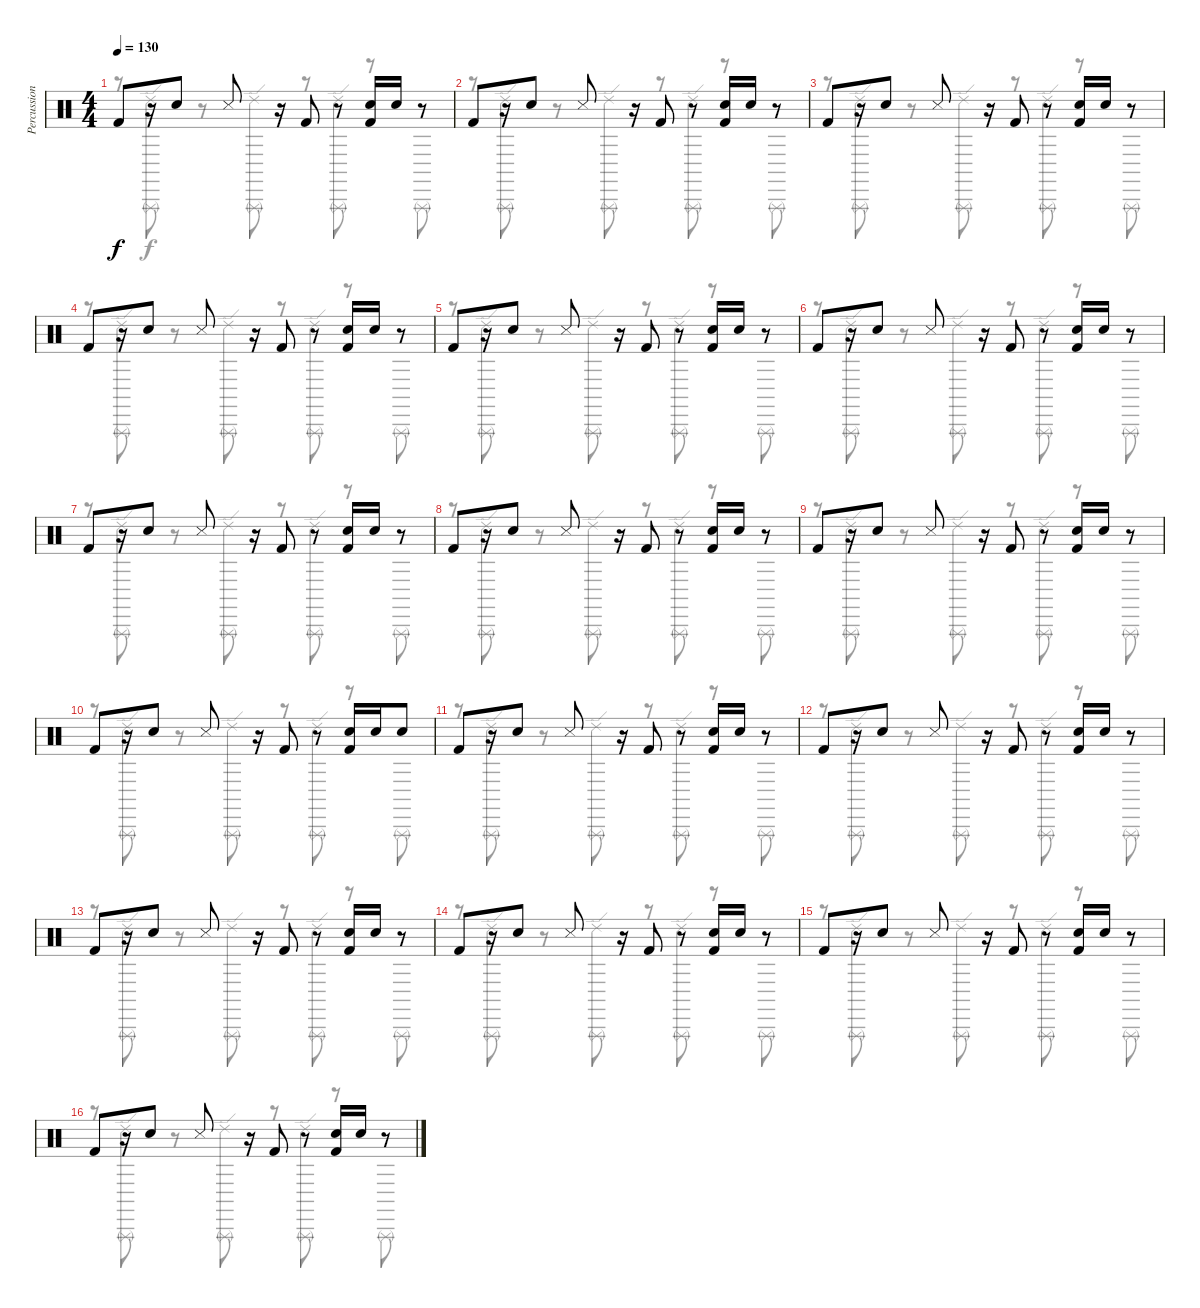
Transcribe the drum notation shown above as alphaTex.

\track ("Percussion" "Percussion") {instrument percussion}
\staff {score}
\articulation defaults
\voice
\ts (4 4)
\tempo 130
\clef neutral
\ks c "Kick (hit) 2".8{dy f}
r.16 "Electric Snare (hit)".8 "Snare (side stick) 3".8 r.16 "Kick (hit) 2".8 r.8 ("Electric Snare (hit)" "Kick (hit) 2").16 "Electric Snare (hit)".16 r.8 |
"Kick (hit) 2".8 r.16 "Electric Snare (hit)".8 "Snare (side stick) 3".8 r.16 "Kick (hit) 2".8 r.8 ("Electric Snare (hit)" "Kick (hit) 2").16 "Electric Snare (hit)".16 r.8 |
"Kick (hit) 2".8 r.16 "Electric Snare (hit)".8 "Snare (side stick) 3".8 r.16 "Kick (hit) 2".8 r.8 ("Electric Snare (hit)" "Kick (hit) 2").16 "Electric Snare (hit)".16 r.8 |
"Kick (hit) 2".8 r.16 "Electric Snare (hit)".8 "Snare (side stick) 3".8 r.16 "Kick (hit) 2".8 r.8 ("Electric Snare (hit)" "Kick (hit) 2").16 "Electric Snare (hit)".16 r.8 |
"Kick (hit) 2".8 r.16 "Electric Snare (hit)".8 "Snare (side stick) 3".8 r.16 "Kick (hit) 2".8 r.8 ("Electric Snare (hit)" "Kick (hit) 2").16 "Electric Snare (hit)".16 r.8 |
"Kick (hit) 2".8 r.16 "Electric Snare (hit)".8 "Snare (side stick) 3".8 r.16 "Kick (hit) 2".8 r.8 ("Electric Snare (hit)" "Kick (hit) 2").16 "Electric Snare (hit)".16 r.8 |
"Kick (hit) 2".8 r.16 "Electric Snare (hit)".8 "Snare (side stick) 3".8 r.16 "Kick (hit) 2".8 r.8 ("Electric Snare (hit)" "Kick (hit) 2").16 "Electric Snare (hit)".16 r.8 |
"Kick (hit) 2".8 r.16 "Electric Snare (hit)".8 "Snare (side stick) 3".8 r.16 "Kick (hit) 2".8 r.8 ("Electric Snare (hit)" "Kick (hit) 2").16 "Electric Snare (hit)".16 r.8 |
"Kick (hit) 2".8 r.16 "Electric Snare (hit)".8 "Snare (side stick) 3".8 r.16 "Kick (hit) 2".8 r.8 ("Electric Snare (hit)" "Kick (hit) 2").16 "Electric Snare (hit)".16 r.8 |
"Kick (hit) 2".8 r.16 "Electric Snare (hit)".8 "Snare (side stick) 3".8 r.16 "Kick (hit) 2".8 r.8 ("Electric Snare (hit)" "Kick (hit) 2").16 "Electric Snare (hit)".16 "Electric Snare (hit)".8 |
"Kick (hit) 2".8 r.16 "Electric Snare (hit)".8 "Snare (side stick) 3".8 r.16 "Kick (hit) 2".8 r.8 ("Electric Snare (hit)" "Kick (hit) 2").16 "Electric Snare (hit)".16 r.8 |
"Kick (hit) 2".8 r.16 "Electric Snare (hit)".8 "Snare (side stick) 3".8 r.16 "Kick (hit) 2".8 r.8 ("Electric Snare (hit)" "Kick (hit) 2").16 "Electric Snare (hit)".16 r.8 |
"Kick (hit) 2".8 r.16 "Electric Snare (hit)".8 "Snare (side stick) 3".8 r.16 "Kick (hit) 2".8 r.8 ("Electric Snare (hit)" "Kick (hit) 2").16 "Electric Snare (hit)".16 r.8 |
"Kick (hit) 2".8 r.16 "Electric Snare (hit)".8 "Snare (side stick) 3".8 r.16 "Kick (hit) 2".8 r.8 ("Electric Snare (hit)" "Kick (hit) 2").16 "Electric Snare (hit)".16 r.8 |
"Kick (hit) 2".8 r.16 "Electric Snare (hit)".8 "Snare (side stick) 3".8 r.16 "Kick (hit) 2".8 r.8 ("Electric Snare (hit)" "Kick (hit) 2").16 "Electric Snare (hit)".16 r.8 |
"Kick (hit) 2".8 r.16 "Electric Snare (hit)".8 "Snare (side stick) 3".8 r.16 "Kick (hit) 2".8 r.8 ("Electric Snare (hit)" "Kick (hit) 2").16 "Electric Snare (hit)".16 r.8
\voice
\clef neutral
\ottava regular
\simile none
\ks c
r.8{dy f} ("Triangle (rnute)" "Ride (edge) 2").8 r.8 ("Triangle (rnute)" "Ride (edge) 2").8 r.8 ("Triangle (rnute)" "Ride (edge) 2").8 r.8 "Triangle (rnute)".8 |
r.8 ("Triangle (rnute)" "Ride (edge) 2").8 r.8 ("Triangle (rnute)" "Ride (edge) 2").8 r.8 ("Triangle (rnute)" "Ride (edge) 2").8 r.8 "Triangle (rnute)".8 |
r.8 ("Triangle (rnute)" "Ride (edge) 2").8 r.8 ("Triangle (rnute)" "Ride (edge) 2").8 r.8 ("Triangle (rnute)" "Ride (edge) 2").8 r.8 "Triangle (rnute)".8 |
r.8 ("Triangle (rnute)" "Ride (edge) 2").8 r.8 ("Triangle (rnute)" "Ride (edge) 2").8 r.8 ("Triangle (rnute)" "Ride (edge) 2").8 r.8 "Triangle (rnute)".8 |
r.8 ("Triangle (rnute)" "Ride (edge) 2").8 r.8 ("Triangle (rnute)" "Ride (edge) 2").8 r.8 ("Triangle (rnute)" "Ride (edge) 2").8 r.8 "Triangle (rnute)".8 |
r.8 ("Triangle (rnute)" "Ride (edge) 2").8 r.8 ("Triangle (rnute)" "Ride (edge) 2").8 r.8 ("Triangle (rnute)" "Ride (edge) 2").8 r.8 "Triangle (rnute)".8 |
r.8 ("Triangle (rnute)" "Ride (edge) 2").8 r.8 ("Triangle (rnute)" "Ride (edge) 2").8 r.8 ("Triangle (rnute)" "Ride (edge) 2").8 r.8 "Triangle (rnute)".8 |
r.8 ("Triangle (rnute)" "Ride (edge) 2").8 r.8 ("Triangle (rnute)" "Ride (edge) 2").8 r.8 ("Triangle (rnute)" "Ride (edge) 2").8 r.8 "Triangle (rnute)".8 |
r.8 ("Triangle (rnute)" "Ride (edge) 2").8 r.8 ("Triangle (rnute)" "Ride (edge) 2").8 r.8 ("Triangle (rnute)" "Ride (edge) 2").8 r.8 "Triangle (rnute)".8 |
r.8 ("Triangle (rnute)" "Ride (edge) 2").8 r.8 ("Triangle (rnute)" "Ride (edge) 2").8 r.8 ("Triangle (rnute)" "Ride (edge) 2").8 r.8 "Triangle (rnute)".8 |
r.8 ("Triangle (rnute)" "Ride (edge) 2").8 r.8 ("Triangle (rnute)" "Ride (edge) 2").8 r.8 ("Triangle (rnute)" "Ride (edge) 2").8 r.8 "Triangle (rnute)".8 |
r.8 ("Triangle (rnute)" "Ride (edge) 2").8 r.8 ("Triangle (rnute)" "Ride (edge) 2").8 r.8 ("Triangle (rnute)" "Ride (edge) 2").8 r.8 "Triangle (rnute)".8 |
r.8 ("Triangle (rnute)" "Ride (edge) 2").8 r.8 ("Triangle (rnute)" "Ride (edge) 2").8 r.8 ("Triangle (rnute)" "Ride (edge) 2").8 r.8 "Triangle (rnute)".8 |
r.8 ("Triangle (rnute)" "Ride (edge) 2").8 r.8 ("Triangle (rnute)" "Ride (edge) 2").8 r.8 ("Triangle (rnute)" "Ride (edge) 2").8 r.8 "Triangle (rnute)".8 |
r.8 ("Triangle (rnute)" "Ride (edge) 2").8 r.8 ("Triangle (rnute)" "Ride (edge) 2").8 r.8 ("Triangle (rnute)" "Ride (edge) 2").8 r.8 "Triangle (rnute)".8 |
r.8 ("Triangle (rnute)" "Ride (edge) 2").8 r.8 ("Triangle (rnute)" "Ride (edge) 2").8 r.8 ("Triangle (rnute)" "Ride (edge) 2").8 r.8 "Triangle (rnute)".8
